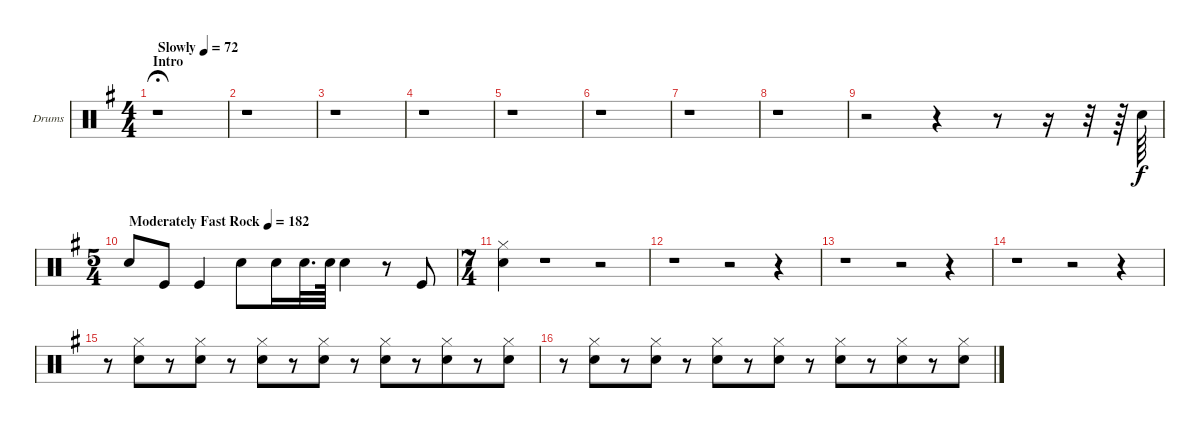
\bracketExtendMode groupsimilarinstruments
\firstSystemTrackNameOrientation horizontal
\otherSystemsTrackNameOrientation horizontal
\track ("Drumkit" "Drums") {instrument percussion}
\staff {score}
\articulation defaults
\ts (4 4)
\beaming (8 4 4)
\section ("" "Intro")
\tempo (72 "Slowly")
\clef neutral
\scale
1.07314
\ks g
r.1{dy f fermata (medium 1)} |
\scale
0.92686 r.1 |
\scale
1.04288 r.1 |
\scale
0.957125 r.1 |
\scale
1.04288 r.1 |
\scale
0.957125 r.1 |
\scale
1.04288 r.1 |
\scale
0.957125 r.1 |
\scale
1.04288 r.2 r.4 r.8 r.16 r.32 r.64 "Snare (hit) 2".64 |
\ts (5 4)
\beaming (8 4 4)
\tempo (182 "Moderately Fast Rock")
\scale
0.957125 "Snare (hit) 2".8 "Kick (hit)".8 "Kick (hit)".4 "Snare (hit) 2".8 "Snare (hit) 2".16 "Snare (hit) 2".32{d} "Snare (hit) 2".64 "Snare (hit) 2".4 r.8 "Kick (hit)".8 |
\ts (7 4)
\beaming (8 4 4 6)
\scale
1.07314 ("Snare (hit) 2" "Hi-Hat (closed)").4 r.1 r.2 |
\scale
0.92686 r.1 r.2 r.4 |
\scale
1.04288 r.1 r.2 r.4 |
\scale
0.957125 r.1 r.2 r.4 |
\scale
1.04288 r.8 ("Snare (hit) 2" "Hi-Hat (closed)").8 r.8 ("Snare (hit) 2" "Hi-Hat (closed)").8 r.8 ("Snare (hit) 2" "Hi-Hat (closed)").8 r.8 ("Snare (hit) 2" "Hi-Hat (closed)").8 r.8 ("Snare (hit) 2" "Hi-Hat (closed)").8 r.8 ("Snare (hit) 2" "Hi-Hat (closed)").8 r.8 ("Snare (hit) 2" "Hi-Hat (closed)").8 |
\scale
0.957125 r.8 ("Snare (hit) 2" "Hi-Hat (closed)").8 r.8 ("Snare (hit) 2" "Hi-Hat (closed)").8 r.8 ("Snare (hit) 2" "Hi-Hat (closed)").8 r.8 ("Snare (hit) 2" "Hi-Hat (closed)").8 r.8 ("Snare (hit) 2" "Hi-Hat (closed)").8 r.8 ("Snare (hit) 2" "Hi-Hat (closed)").8 r.8 ("Snare (hit) 2" "Hi-Hat (closed)").8
